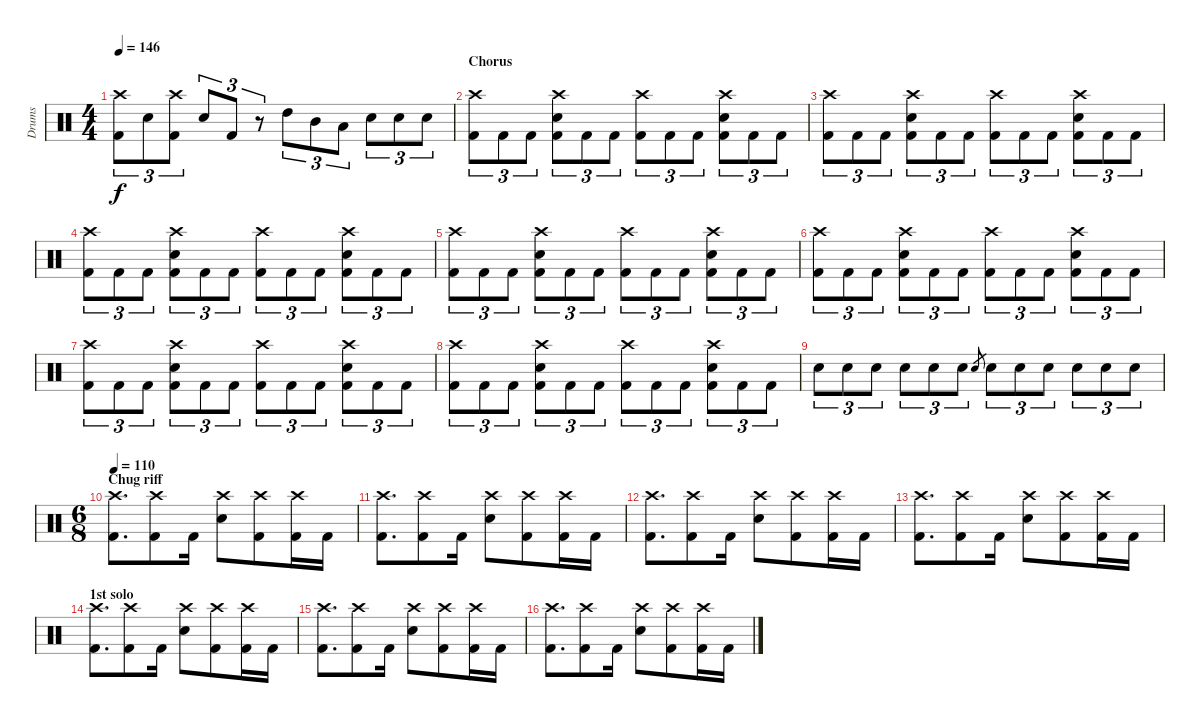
\track ("Drums" "Drums") {instrument percussion}
\staff {score}
\articulation defaults
\ts (4 4)
\tempo 146
\clef neutral
\ks c
("Crash high (hit)" "Kick (hit) 2").8{tu (3 2) dy f} "Electric Snare (hit)".8{tu (3 2)} ("Crash high (hit)" "Kick (hit) 2").8{tu (3 2)} "Electric Snare (hit)".8{tu (3 2)} "Kick (hit) 2".8{tu (3 2)} r.8{tu (3 2)} "High Tom (hit)".8{tu (3 2)} "Mid Tom (hit)".8{tu (3 2)} "Low Tom (hit)".8{tu (3 2)} "Electric Snare (hit)".8{tu (3 2)} "Electric Snare (hit)".8{tu (3 2)} "Electric Snare (hit)".8{tu (3 2)} |
\section ("" "Chorus")
("Crash high (hit)" "Kick (hit) 2").8{tu (3 2)} "Kick (hit) 2".8{tu (3 2)} "Kick (hit) 2".8{tu (3 2)} ("Crash high (hit)" "Electric Snare (hit)" "Kick (hit) 2").8{tu (3 2)} "Kick (hit) 2".8{tu (3 2)} "Kick (hit) 2".8{tu (3 2)} ("Crash high (hit)" "Kick (hit) 2").8{tu (3 2)} "Kick (hit) 2".8{tu (3 2)} "Kick (hit) 2".8{tu (3 2)} ("Crash high (hit)" "Electric Snare (hit)" "Kick (hit) 2").8{tu (3 2)} "Kick (hit) 2".8{tu (3 2)} "Kick (hit) 2".8{tu (3 2)} |
("Crash high (hit)" "Kick (hit) 2").8{tu (3 2)} "Kick (hit) 2".8{tu (3 2)} "Kick (hit) 2".8{tu (3 2)} ("Crash high (hit)" "Electric Snare (hit)" "Kick (hit) 2").8{tu (3 2)} "Kick (hit) 2".8{tu (3 2)} "Kick (hit) 2".8{tu (3 2)} ("Crash high (hit)" "Kick (hit) 2").8{tu (3 2)} "Kick (hit) 2".8{tu (3 2)} "Kick (hit) 2".8{tu (3 2)} ("Crash high (hit)" "Electric Snare (hit)" "Kick (hit) 2").8{tu (3 2)} "Kick (hit) 2".8{tu (3 2)} "Kick (hit) 2".8{tu (3 2)} |
("Crash high (hit)" "Kick (hit) 2").8{tu (3 2)} "Kick (hit) 2".8{tu (3 2)} "Kick (hit) 2".8{tu (3 2)} ("Crash high (hit)" "Electric Snare (hit)" "Kick (hit) 2").8{tu (3 2)} "Kick (hit) 2".8{tu (3 2)} "Kick (hit) 2".8{tu (3 2)} ("Crash high (hit)" "Kick (hit) 2").8{tu (3 2)} "Kick (hit) 2".8{tu (3 2)} "Kick (hit) 2".8{tu (3 2)} ("Crash high (hit)" "Electric Snare (hit)" "Kick (hit) 2").8{tu (3 2)} "Kick (hit) 2".8{tu (3 2)} "Kick (hit) 2".8{tu (3 2)} |
("Crash high (hit)" "Kick (hit) 2").8{tu (3 2)} "Kick (hit) 2".8{tu (3 2)} "Kick (hit) 2".8{tu (3 2)} ("Crash high (hit)" "Electric Snare (hit)" "Kick (hit) 2").8{tu (3 2)} "Kick (hit) 2".8{tu (3 2)} "Kick (hit) 2".8{tu (3 2)} ("Crash high (hit)" "Kick (hit) 2").8{tu (3 2)} "Kick (hit) 2".8{tu (3 2)} "Kick (hit) 2".8{tu (3 2)} ("Crash high (hit)" "Electric Snare (hit)" "Kick (hit) 2").8{tu (3 2)} "Kick (hit) 2".8{tu (3 2)} "Kick (hit) 2".8{tu (3 2)} |
("Crash high (hit)" "Kick (hit) 2").8{tu (3 2)} "Kick (hit) 2".8{tu (3 2)} "Kick (hit) 2".8{tu (3 2)} ("Crash high (hit)" "Electric Snare (hit)" "Kick (hit) 2").8{tu (3 2)} "Kick (hit) 2".8{tu (3 2)} "Kick (hit) 2".8{tu (3 2)} ("Crash high (hit)" "Kick (hit) 2").8{tu (3 2)} "Kick (hit) 2".8{tu (3 2)} "Kick (hit) 2".8{tu (3 2)} ("Crash high (hit)" "Electric Snare (hit)" "Kick (hit) 2").8{tu (3 2)} "Kick (hit) 2".8{tu (3 2)} "Kick (hit) 2".8{tu (3 2)} |
("Crash high (hit)" "Kick (hit) 2").8{tu (3 2)} "Kick (hit) 2".8{tu (3 2)} "Kick (hit) 2".8{tu (3 2)} ("Crash high (hit)" "Electric Snare (hit)" "Kick (hit) 2").8{tu (3 2)} "Kick (hit) 2".8{tu (3 2)} "Kick (hit) 2".8{tu (3 2)} ("Crash high (hit)" "Kick (hit) 2").8{tu (3 2)} "Kick (hit) 2".8{tu (3 2)} "Kick (hit) 2".8{tu (3 2)} ("Crash high (hit)" "Electric Snare (hit)" "Kick (hit) 2").8{tu (3 2)} "Kick (hit) 2".8{tu (3 2)} "Kick (hit) 2".8{tu (3 2)} |
("Crash high (hit)" "Kick (hit) 2").8{tu (3 2)} "Kick (hit) 2".8{tu (3 2)} "Kick (hit) 2".8{tu (3 2)} ("Crash high (hit)" "Electric Snare (hit)" "Kick (hit) 2").8{tu (3 2)} "Kick (hit) 2".8{tu (3 2)} "Kick (hit) 2".8{tu (3 2)} ("Crash high (hit)" "Kick (hit) 2").8{tu (3 2)} "Kick (hit) 2".8{tu (3 2)} "Kick (hit) 2".8{tu (3 2)} ("Crash high (hit)" "Electric Snare (hit)" "Kick (hit) 2").8{tu (3 2)} "Kick (hit) 2".8{tu (3 2)} "Kick (hit) 2".8{tu (3 2)} |
"Electric Snare (hit)".8{tu (3 2)} "Electric Snare (hit)".8{tu (3 2)} "Electric Snare (hit)".8{tu (3 2)} "Electric Snare (hit)".8{tu (3 2)} "Electric Snare (hit)".8{tu (3 2)} "Electric Snare (hit)".8{tu (3 2)} "Electric Snare (hit)".8{gr} "Electric Snare (hit)".8{tu (3 2)} "Electric Snare (hit)".8{tu (3 2)} "Electric Snare (hit)".8{tu (3 2)} "Electric Snare (hit)".8{tu (3 2)} "Electric Snare (hit)".8{tu (3 2)} "Electric Snare (hit)".8{tu (3 2)} |
\ts (6 8)
\section ("" "Chug riff")
\tempo 110
("Crash high (hit)" "Kick (hit) 2").8{d} ("Crash high (hit)" "Kick (hit) 2").8 "Kick (hit) 2".16 ("Crash high (hit)" "Electric Snare (hit)").8 ("Crash high (hit)" "Kick (hit) 2").8 ("Crash high (hit)" "Kick (hit) 2").16 "Kick (hit) 2".16 |
("Crash high (hit)" "Kick (hit) 2").8{d} ("Crash high (hit)" "Kick (hit) 2").8 "Kick (hit) 2".16 ("Crash high (hit)" "Electric Snare (hit)").8 ("Crash high (hit)" "Kick (hit) 2").8 ("Crash high (hit)" "Kick (hit) 2").16 "Kick (hit) 2".16 |
("Crash high (hit)" "Kick (hit) 2").8{d} ("Crash high (hit)" "Kick (hit) 2").8 "Kick (hit) 2".16 ("Crash high (hit)" "Electric Snare (hit)").8 ("Crash high (hit)" "Kick (hit) 2").8 ("Crash high (hit)" "Kick (hit) 2").16 "Kick (hit) 2".16 |
("Crash high (hit)" "Kick (hit) 2").8{d} ("Crash high (hit)" "Kick (hit) 2").8 "Kick (hit) 2".16 ("Crash high (hit)" "Electric Snare (hit)").8 ("Crash high (hit)" "Kick (hit) 2").8 ("Crash high (hit)" "Kick (hit) 2").16 "Kick (hit) 2".16 |
\section ("" "1st solo")
("Crash high (hit)" "Kick (hit) 2").8{d} ("Crash high (hit)" "Kick (hit) 2").8 "Kick (hit) 2".16 ("Crash high (hit)" "Electric Snare (hit)").8 ("Crash high (hit)" "Kick (hit) 2").8 ("Crash high (hit)" "Kick (hit) 2").16 "Kick (hit) 2".16 |
("Crash high (hit)" "Kick (hit) 2").8{d} ("Crash high (hit)" "Kick (hit) 2").8 "Kick (hit) 2".16 ("Crash high (hit)" "Electric Snare (hit)").8 ("Crash high (hit)" "Kick (hit) 2").8 ("Crash high (hit)" "Kick (hit) 2").16 "Kick (hit) 2".16 |
("Crash high (hit)" "Kick (hit) 2").8{d} ("Crash high (hit)" "Kick (hit) 2").8 "Kick (hit) 2".16 ("Crash high (hit)" "Electric Snare (hit)").8 ("Crash high (hit)" "Kick (hit) 2").8 ("Crash high (hit)" "Kick (hit) 2").16 "Kick (hit) 2".16
